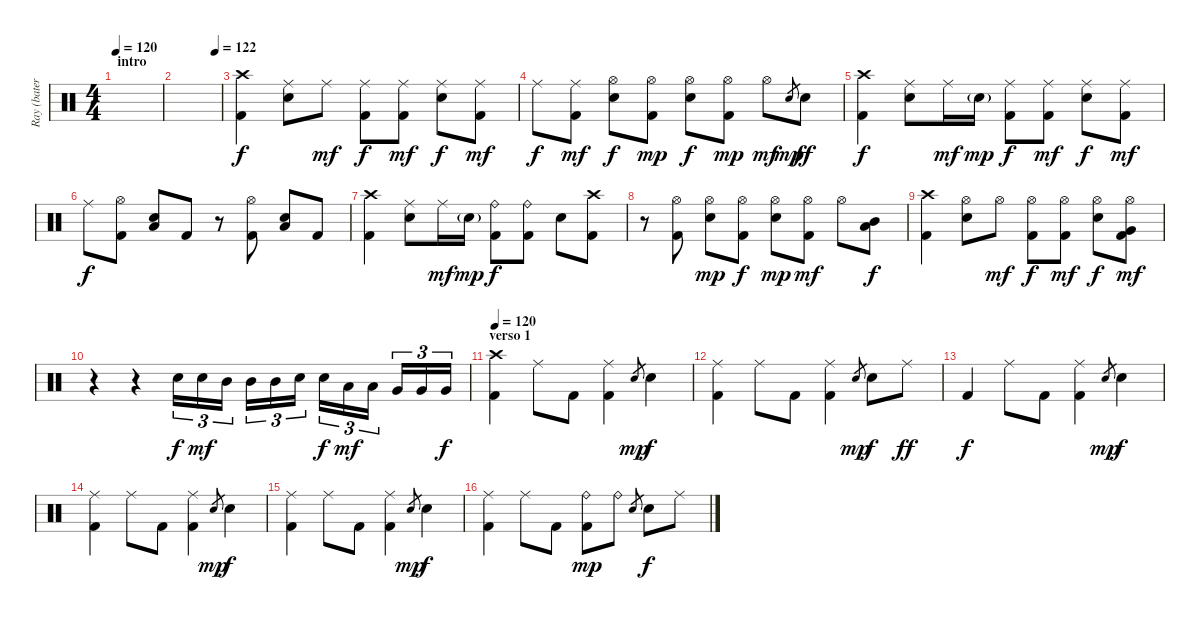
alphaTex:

\track ("Ray (batería)" "Ray (bater") {instrument percussion}
\staff {score}
\articulation defaults
\ts (4 4)
\section ("" "intro")
\tempo 120
\clef neutral
\ks c
|
\tempo (122 0.875)
|
("Crash high (hit)" "Kick (hit) 2").4 ("Ride (middle)" "Snare (hit) 2").8 "Ride (middle)".8{dy mf} ("Ride (middle)" "Kick (hit) 2").8{dy f} ("Ride (middle)" "Kick (hit) 2").8{dy mf} ("Ride (middle)" "Snare (hit) 2").8{dy f} ("Ride (middle)" "Kick (hit) 2").8{dy mf} |
"Ride (middle)".8{dy f} ("Ride (middle)" "Kick (hit) 2").8{dy mf} ("Hi-Hat (open)" "Snare (hit) 2").8{dy f} ("Hi-Hat (open)" "Kick (hit) 2").8{dy mp} ("Hi-Hat (open)" "Snare (hit) 2").8{dy f} ("Hi-Hat (open)" "Kick (hit) 2").8{dy mp} "Hi-Hat (open)".8{dy mf} "Snare (hit) 2".8{gr dy mp} "Snare (hit) 2".8{dy ff} |
("Crash high (hit)" "Kick (hit) 2").4{dy f} ("Ride (middle)" "Snare (hit) 2").8 "Ride (middle)".16{dy mf} "Snare (hit) 2"{g}.16{dy mp} ("Ride (middle)" "Kick (hit) 2").8{dy f} ("Ride (middle)" "Kick (hit) 2").8{dy mf} ("Ride (middle)" "Snare (hit) 2").8{dy f} ("Ride (middle)" "Kick (hit) 2").8{dy mf} |
"Ride (middle)".8{dy f} ("Hi-Hat (open)" "Kick (hit) 2").8 ("Snare (hit) 2" "Low Tom (hit)").8 "Kick (hit) 2".8 r.8 ("Hi-Hat (open)" "Kick (hit) 2").8 ("Snare (hit) 2" "Low Tom (hit)").8 "Kick (hit) 2".8 |
("Crash high (hit)" "Kick (hit) 2").4 ("Ride (middle)" "Snare (hit) 2").8 "Ride (middle)".16{dy mf} "Snare (hit) 2"{g}.16{dy mp} ("Ride (bell)" "Kick (hit) 2").8{dy f} ("Ride (bell)" "Kick (hit) 2").8 "Snare (hit) 2".8 ("Crash high (hit)" "Kick (hit) 2").8 |
r.8 ("Hi-Hat (open)" "Kick (hit) 2").8 ("Hi-Hat (open)" "Snare (hit) 2").8{dy mp} ("Hi-Hat (open)" "Kick (hit) 2").8{dy f} ("Hi-Hat (open)" "Snare (hit) 2").8{dy mp} ("Hi-Hat (open)" "Kick (hit) 2").8{dy mf} "Hi-Hat (open)".8 ("Mid Tom (hit)" "Low Tom (hit)").8{dy f} |
("Crash high (hit)" "Kick (hit) 2").4 ("Hi-Hat (open)" "Snare (hit) 2").8 "Hi-Hat (open)".8{dy mf} ("Hi-Hat (open)" "Kick (hit) 2").8{dy f} ("Hi-Hat (open)" "Kick (hit) 2").8{dy mf} ("Hi-Hat (open)" "Snare (hit) 2").8{dy f} ("Hi-Hat (open)" "Very Low Tom (hit)" "Kick (hit) 2").8{dy mf} |
r.4 r.4 "Snare (hit) 2".16{tu (3 2) dy f} "Snare (hit) 2".16{tu (3 2) dy mf} "Mid Tom (hit)".16{tu (3 2)} "Mid Tom (hit)".16{tu (3 2)} "Mid Tom (hit)".16{tu (3 2)} "Snare (hit) 2".16{tu (3 2)} "Snare (hit) 2".16{tu (3 2) dy f} "Low Tom (hit)".16{tu (3 2) dy mf} "Low Tom (hit)".16{tu (3 2)} "Very Low Tom (hit)".16{tu (3 2)} "Very Low Tom (hit)".16{tu (3 2)} "Very Low Tom (hit)".16{tu (3 2) dy f} |
\section ("" "verso 1")
\tempo 120
("Crash high (hit)" "Kick (hit) 2").4 "Ride (middle)".8 "Kick (hit) 2".8 ("Ride (middle)" "Kick (hit) 2").4 "Snare (hit) 2".8{gr dy mp} "Snare (hit) 2".4{dy f} |
("Ride (middle)" "Kick (hit) 2").4 "Ride (middle)".8 "Kick (hit) 2".8 ("Ride (middle)" "Kick (hit) 2").4 "Snare (hit) 2".8{gr dy mp} "Snare (hit) 2".8{dy f} "Ride (middle)".8{dy ff} |
"Kick (hit) 2".4{dy f} "Ride (middle)".8 "Kick (hit) 2".8 ("Ride (middle)" "Kick (hit) 2").4 "Snare (hit) 2".8{gr dy mp} "Snare (hit) 2".4{dy f} |
("Ride (middle)" "Kick (hit) 2").4 "Ride (middle)".8 "Kick (hit) 2".8 ("Ride (middle)" "Kick (hit) 2").4 "Snare (hit) 2".8{gr dy mp} "Snare (hit) 2".4{dy f} |
("Ride (middle)" "Kick (hit) 2").4 "Ride (middle)".8 "Kick (hit) 2".8 ("Ride (middle)" "Kick (hit) 2").4 "Snare (hit) 2".8{gr dy mp} "Snare (hit) 2".4{dy f} |
("Ride (middle)" "Kick (hit) 2").4 "Ride (middle)".8 "Kick (hit) 2".8 ("Ride (bell)" "Kick (hit) 2").8{dy mp} "Ride (bell)".8 "Snare (hit) 2".8{gr} "Snare (hit) 2".8{dy f} "Ride (middle)".8
